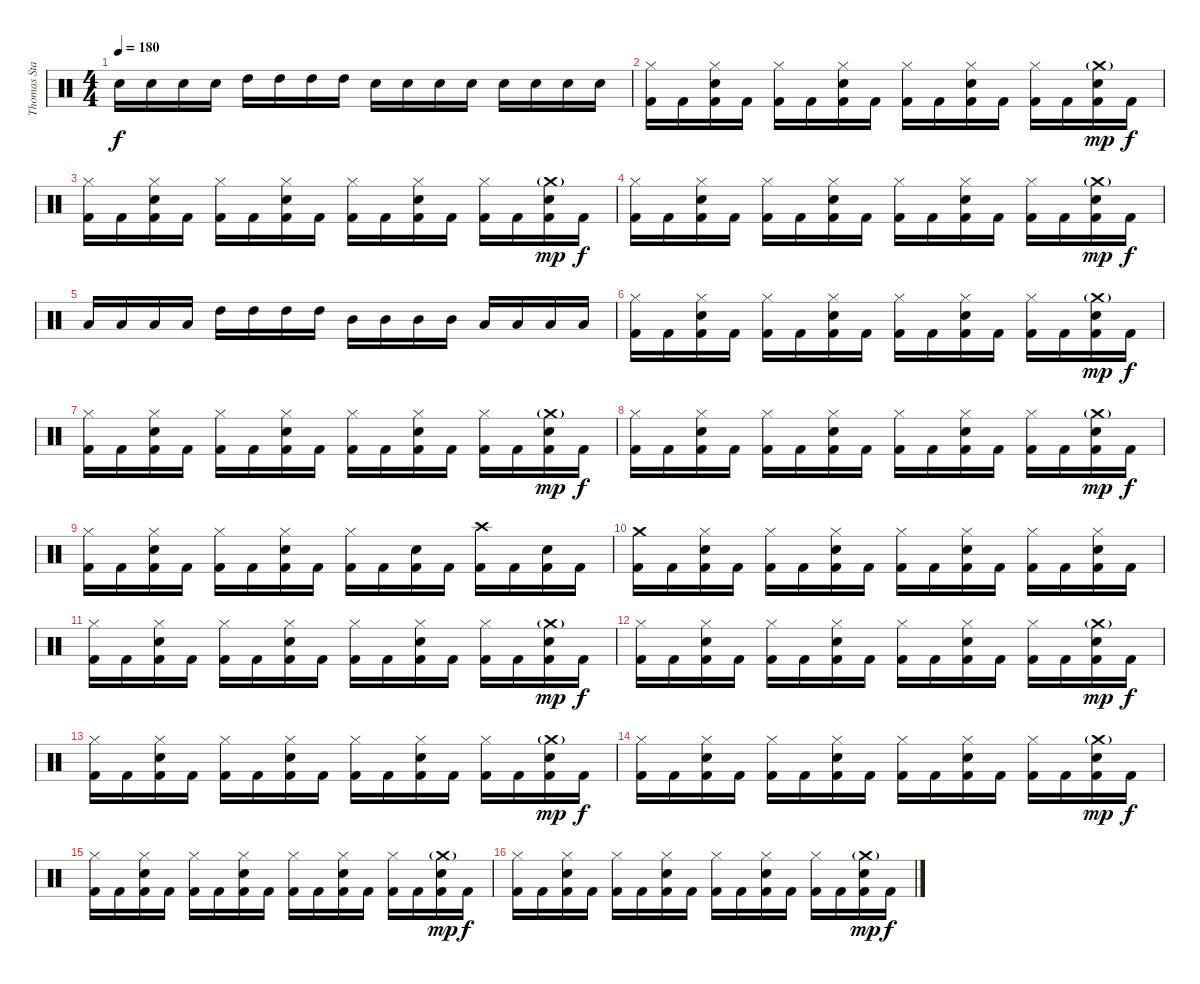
\track ("Thomas Stauch" "Thomas Sta") {instrument percussion}
\staff {score}
\articulation defaults
\ts (4 4)
\tempo 180
\clef neutral
\ks c "Electric Snare (hit)".16{dy f} "Electric Snare (hit)".16 "Electric Snare (hit)".16 "Electric Snare (hit)".16 "High Tom (hit)".16 "High Tom (hit)".16 "High Tom (hit)".16 "High Tom (hit)".16 "Electric Snare (hit)".16 "Electric Snare (hit)".16 "Electric Snare (hit)".16 "Electric Snare (hit)".16 "Electric Snare (hit)".16 "Electric Snare (hit)".16 "Electric Snare (hit)".16 "Electric Snare (hit)".16
|
("Hi-Hat (closed)" "Kick (hit) 2").16 "Kick (hit) 2".16 ("Hi-Hat (closed)" "Electric Snare (hit)" "Kick (hit) 2").16 "Kick (hit) 2".16 ("Hi-Hat (closed)" "Kick (hit) 2").16 "Kick (hit) 2".16 ("Hi-Hat (closed)" "Electric Snare (hit)" "Kick (hit) 2").16 "Kick (hit) 2".16 ("Hi-Hat (closed)" "Kick (hit) 2").16 "Kick (hit) 2".16 ("Hi-Hat (closed)" "Electric Snare (hit)" "Kick (hit) 2").16 "Kick (hit) 2".16 ("Hi-Hat (closed)" "Kick (hit) 2").16 "Kick (hit) 2".16 ("Crash medium (hit)"{g} "Electric Snare (hit)" "Kick (hit) 2").16{dy mp} "Kick (hit) 2".16{dy f} |
("Hi-Hat (closed)" "Kick (hit) 2").16 "Kick (hit) 2".16 ("Hi-Hat (closed)" "Electric Snare (hit)" "Kick (hit) 2").16 "Kick (hit) 2".16 ("Hi-Hat (closed)" "Kick (hit) 2").16 "Kick (hit) 2".16 ("Hi-Hat (closed)" "Electric Snare (hit)" "Kick (hit) 2").16 "Kick (hit) 2".16 ("Hi-Hat (closed)" "Kick (hit) 2").16 "Kick (hit) 2".16 ("Hi-Hat (closed)" "Electric Snare (hit)" "Kick (hit) 2").16 "Kick (hit) 2".16 ("Hi-Hat (closed)" "Kick (hit) 2").16 "Kick (hit) 2".16 ("Crash medium (hit)"{g} "Electric Snare (hit)" "Kick (hit) 2").16{dy mp} "Kick (hit) 2".16{dy f} |
("Hi-Hat (closed)" "Kick (hit) 2").16 "Kick (hit) 2".16 ("Hi-Hat (closed)" "Electric Snare (hit)" "Kick (hit) 2").16 "Kick (hit) 2".16 ("Hi-Hat (closed)" "Kick (hit) 2").16 "Kick (hit) 2".16 ("Hi-Hat (closed)" "Electric Snare (hit)" "Kick (hit) 2").16 "Kick (hit) 2".16 ("Hi-Hat (closed)" "Kick (hit) 2").16 "Kick (hit) 2".16 ("Hi-Hat (closed)" "Electric Snare (hit)" "Kick (hit) 2").16 "Kick (hit) 2".16 ("Hi-Hat (closed)" "Kick (hit) 2").16 "Kick (hit) 2".16 ("Crash medium (hit)"{g} "Electric Snare (hit)" "Kick (hit) 2").16{dy mp} "Kick (hit) 2".16{dy f} |
"Low Tom (hit)".16 "Low Tom (hit)".16 "Low Tom (hit)".16 "Low Tom (hit)".16 "High Tom (hit)".16 "High Tom (hit)".16 "High Tom (hit)".16 "High Tom (hit)".16 "Mid Tom (hit)".16 "Mid Tom (hit)".16 "Mid Tom (hit)".16 "Mid Tom (hit)".16 "Low Tom (hit)".16 "Low Tom (hit)".16 "Low Tom (hit)".16 "Low Tom (hit)".16 |
("Hi-Hat (closed)" "Kick (hit) 2").16 "Kick (hit) 2".16 ("Hi-Hat (closed)" "Electric Snare (hit)" "Kick (hit) 2").16 "Kick (hit) 2".16 ("Hi-Hat (closed)" "Kick (hit) 2").16 "Kick (hit) 2".16 ("Hi-Hat (closed)" "Electric Snare (hit)" "Kick (hit) 2").16 "Kick (hit) 2".16 ("Hi-Hat (closed)" "Kick (hit) 2").16 "Kick (hit) 2".16 ("Hi-Hat (closed)" "Electric Snare (hit)" "Kick (hit) 2").16 "Kick (hit) 2".16 ("Hi-Hat (closed)" "Kick (hit) 2").16 "Kick (hit) 2".16 ("Crash medium (hit)"{g} "Electric Snare (hit)" "Kick (hit) 2").16{dy mp} "Kick (hit) 2".16{dy f} |
("Hi-Hat (closed)" "Kick (hit) 2").16 "Kick (hit) 2".16 ("Hi-Hat (closed)" "Electric Snare (hit)" "Kick (hit) 2").16 "Kick (hit) 2".16 ("Hi-Hat (closed)" "Kick (hit) 2").16 "Kick (hit) 2".16 ("Hi-Hat (closed)" "Electric Snare (hit)" "Kick (hit) 2").16 "Kick (hit) 2".16 ("Hi-Hat (closed)" "Kick (hit) 2").16 "Kick (hit) 2".16 ("Hi-Hat (closed)" "Electric Snare (hit)" "Kick (hit) 2").16 "Kick (hit) 2".16 ("Hi-Hat (closed)" "Kick (hit) 2").16 "Kick (hit) 2".16 ("Crash medium (hit)"{g} "Electric Snare (hit)" "Kick (hit) 2").16{dy mp} "Kick (hit) 2".16{dy f} |
("Hi-Hat (closed)" "Kick (hit) 2").16 "Kick (hit) 2".16 ("Hi-Hat (closed)" "Electric Snare (hit)" "Kick (hit) 2").16 "Kick (hit) 2".16 ("Hi-Hat (closed)" "Kick (hit) 2").16 "Kick (hit) 2".16 ("Hi-Hat (closed)" "Electric Snare (hit)" "Kick (hit) 2").16 "Kick (hit) 2".16 ("Hi-Hat (closed)" "Kick (hit) 2").16 "Kick (hit) 2".16 ("Hi-Hat (closed)" "Electric Snare (hit)" "Kick (hit) 2").16 "Kick (hit) 2".16 ("Hi-Hat (closed)" "Kick (hit) 2").16 "Kick (hit) 2".16 ("Crash medium (hit)"{g} "Electric Snare (hit)" "Kick (hit) 2").16{dy mp} "Kick (hit) 2".16{dy f} |
("Hi-Hat (closed)" "Kick (hit) 2").16 "Kick (hit) 2".16 ("Hi-Hat (closed)" "Electric Snare (hit)" "Kick (hit) 2").16 "Kick (hit) 2".16 ("Hi-Hat (closed)" "Kick (hit) 2").16 "Kick (hit) 2".16 ("Hi-Hat (closed)" "Electric Snare (hit)" "Kick (hit) 2").16 "Kick (hit) 2".16 ("Hi-Hat (closed)" "Kick (hit) 2").16 "Kick (hit) 2".16 ("Electric Snare (hit)" "Kick (hit) 2").16 "Kick (hit) 2".16 ("Crash high (hit)" "Kick (hit) 2").16 "Kick (hit) 2".16 ("Electric Snare (hit)" "Kick (hit) 2").16 "Kick (hit) 2".16 |
("Crash medium (hit)" "Kick (hit) 2").16 "Kick (hit) 2".16 ("Hi-Hat (closed)" "Electric Snare (hit)" "Kick (hit) 2").16 "Kick (hit) 2".16 ("Hi-Hat (closed)" "Kick (hit) 2").16 "Kick (hit) 2".16 ("Hi-Hat (closed)" "Electric Snare (hit)" "Kick (hit) 2").16 "Kick (hit) 2".16 ("Hi-Hat (closed)" "Kick (hit) 2").16 "Kick (hit) 2".16 ("Hi-Hat (closed)" "Electric Snare (hit)" "Kick (hit) 2").16 "Kick (hit) 2".16 ("Hi-Hat (closed)" "Kick (hit) 2").16 "Kick (hit) 2".16 ("Hi-Hat (closed)" "Electric Snare (hit)" "Kick (hit) 2").16 "Kick (hit) 2".16 |
("Hi-Hat (closed)" "Kick (hit) 2").16 "Kick (hit) 2".16 ("Hi-Hat (closed)" "Electric Snare (hit)" "Kick (hit) 2").16 "Kick (hit) 2".16 ("Hi-Hat (closed)" "Kick (hit) 2").16 "Kick (hit) 2".16 ("Hi-Hat (closed)" "Electric Snare (hit)" "Kick (hit) 2").16 "Kick (hit) 2".16 ("Hi-Hat (closed)" "Kick (hit) 2").16 "Kick (hit) 2".16 ("Hi-Hat (closed)" "Electric Snare (hit)" "Kick (hit) 2").16 "Kick (hit) 2".16 ("Hi-Hat (closed)" "Kick (hit) 2").16 "Kick (hit) 2".16 ("Crash medium (hit)"{g} "Electric Snare (hit)" "Kick (hit) 2").16{dy mp} "Kick (hit) 2".16{dy f} |
("Hi-Hat (closed)" "Kick (hit) 2").16 "Kick (hit) 2".16 ("Hi-Hat (closed)" "Electric Snare (hit)" "Kick (hit) 2").16 "Kick (hit) 2".16 ("Hi-Hat (closed)" "Kick (hit) 2").16 "Kick (hit) 2".16 ("Hi-Hat (closed)" "Electric Snare (hit)" "Kick (hit) 2").16 "Kick (hit) 2".16 ("Hi-Hat (closed)" "Kick (hit) 2").16 "Kick (hit) 2".16 ("Hi-Hat (closed)" "Electric Snare (hit)" "Kick (hit) 2").16 "Kick (hit) 2".16 ("Hi-Hat (closed)" "Kick (hit) 2").16 "Kick (hit) 2".16 ("Crash medium (hit)"{g} "Electric Snare (hit)" "Kick (hit) 2").16{dy mp} "Kick (hit) 2".16{dy f} |
("Hi-Hat (closed)" "Kick (hit) 2").16 "Kick (hit) 2".16 ("Hi-Hat (closed)" "Electric Snare (hit)" "Kick (hit) 2").16 "Kick (hit) 2".16 ("Hi-Hat (closed)" "Kick (hit) 2").16 "Kick (hit) 2".16 ("Hi-Hat (closed)" "Electric Snare (hit)" "Kick (hit) 2").16 "Kick (hit) 2".16 ("Hi-Hat (closed)" "Kick (hit) 2").16 "Kick (hit) 2".16 ("Hi-Hat (closed)" "Electric Snare (hit)" "Kick (hit) 2").16 "Kick (hit) 2".16 ("Hi-Hat (closed)" "Kick (hit) 2").16 "Kick (hit) 2".16 ("Crash medium (hit)"{g} "Electric Snare (hit)" "Kick (hit) 2").16{dy mp} "Kick (hit) 2".16{dy f} |
("Hi-Hat (closed)" "Kick (hit) 2").16 "Kick (hit) 2".16 ("Hi-Hat (closed)" "Electric Snare (hit)" "Kick (hit) 2").16 "Kick (hit) 2".16 ("Hi-Hat (closed)" "Kick (hit) 2").16 "Kick (hit) 2".16 ("Hi-Hat (closed)" "Electric Snare (hit)" "Kick (hit) 2").16 "Kick (hit) 2".16 ("Hi-Hat (closed)" "Kick (hit) 2").16 "Kick (hit) 2".16 ("Hi-Hat (closed)" "Electric Snare (hit)" "Kick (hit) 2").16 "Kick (hit) 2".16 ("Hi-Hat (closed)" "Kick (hit) 2").16 "Kick (hit) 2".16 ("Crash medium (hit)"{g} "Electric Snare (hit)" "Kick (hit) 2").16{dy mp} "Kick (hit) 2".16{dy f} |
("Hi-Hat (closed)" "Kick (hit) 2").16 "Kick (hit) 2".16 ("Hi-Hat (closed)" "Electric Snare (hit)" "Kick (hit) 2").16 "Kick (hit) 2".16 ("Hi-Hat (closed)" "Kick (hit) 2").16 "Kick (hit) 2".16 ("Hi-Hat (closed)" "Electric Snare (hit)" "Kick (hit) 2").16 "Kick (hit) 2".16 ("Hi-Hat (closed)" "Kick (hit) 2").16 "Kick (hit) 2".16 ("Hi-Hat (closed)" "Electric Snare (hit)" "Kick (hit) 2").16 "Kick (hit) 2".16 ("Hi-Hat (closed)" "Kick (hit) 2").16 "Kick (hit) 2".16 ("Crash medium (hit)"{g} "Electric Snare (hit)" "Kick (hit) 2").16{dy mp} "Kick (hit) 2".16{dy f} |
("Hi-Hat (closed)" "Kick (hit) 2").16 "Kick (hit) 2".16 ("Hi-Hat (closed)" "Electric Snare (hit)" "Kick (hit) 2").16 "Kick (hit) 2".16 ("Hi-Hat (closed)" "Kick (hit) 2").16 "Kick (hit) 2".16 ("Hi-Hat (closed)" "Electric Snare (hit)" "Kick (hit) 2").16 "Kick (hit) 2".16 ("Hi-Hat (closed)" "Kick (hit) 2").16 "Kick (hit) 2".16 ("Hi-Hat (closed)" "Electric Snare (hit)" "Kick (hit) 2").16 "Kick (hit) 2".16 ("Hi-Hat (closed)" "Kick (hit) 2").16 "Kick (hit) 2".16 ("Crash medium (hit)"{g} "Electric Snare (hit)" "Kick (hit) 2").16{dy mp} "Kick (hit) 2".16{dy f}
